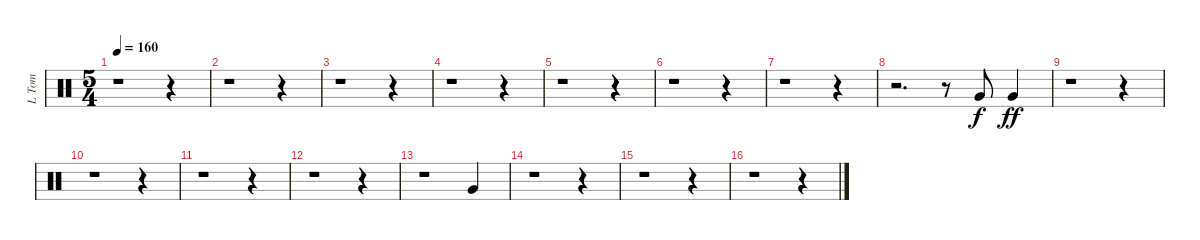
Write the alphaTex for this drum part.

\track ("L Tom" "L Tom") {instrument percussion}
\staff {score}
\articulation defaults
\ts (5 4)
\tempo 160
\clef neutral
\ks c
r.1{dy ff} r.4 |
r.1 r.4 |
r.1 r.4 |
r.1 r.4 |
r.1 r.4 |
r.1 r.4 |
r.1 r.4 |
r.2{d} r.8 "Very Low Tom (hit)".8{dy f} "Very Low Tom (hit)".4{dy ff} |
r.1 r.4 |
r.1 r.4 |
r.1 r.4 |
r.1 r.4 |
r.1 "Very Low Tom (hit)".4 |
r.1 r.4 |
r.1 r.4 |
r.1 r.4
